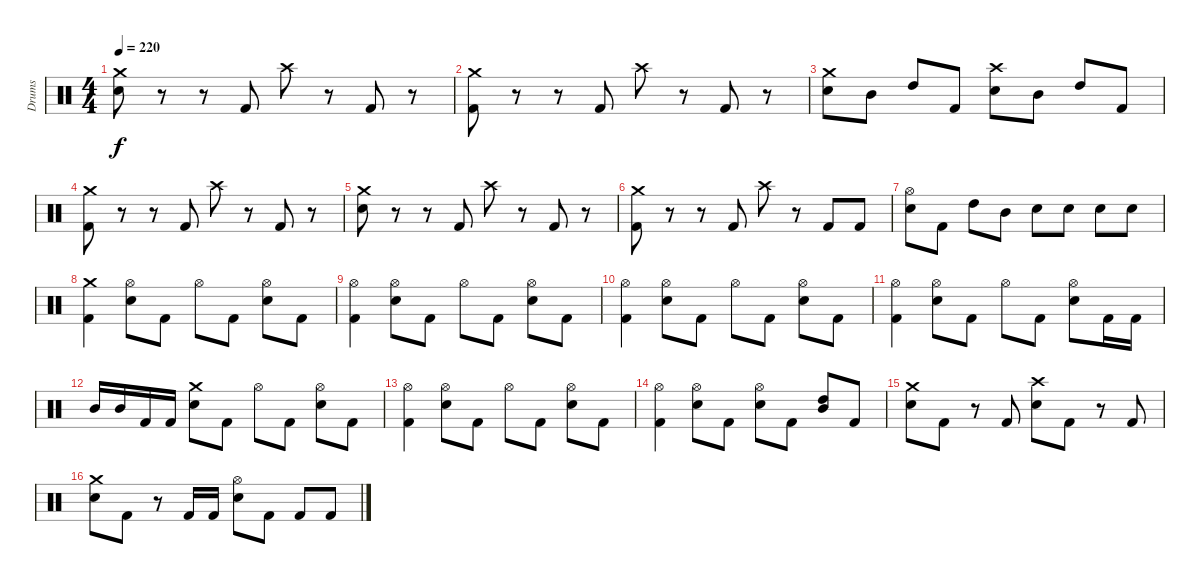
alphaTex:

\track ("Drums" "Drums") {instrument percussion}
\staff {score}
\articulation defaults
\ts (4 4)
\tempo 220
\clef neutral
\ks c
("Crash medium (hit)" "Electric Snare (hit)").8{dy f} r.8 r.8 "Kick (hit) 2".8 "Crash high (hit)".8 r.8 "Kick (hit) 2".8 r.8 |
("Crash medium (hit)" "Kick (hit) 2").8 r.8 r.8 "Kick (hit) 2".8 "Crash high (hit)".8 r.8 "Kick (hit) 2".8 r.8 |
("Crash medium (hit)" "Electric Snare (hit)").8 "Mid Tom (hit)".8 "High Tom (hit)".8 "Kick (hit) 2".8 ("Crash high (hit)" "Electric Snare (hit)").8 "Mid Tom (hit)".8 "High Tom (hit)".8 "Kick (hit) 2".8 |
("Crash medium (hit)" "Kick (hit) 2").8 r.8 r.8 "Kick (hit) 2".8 "Crash high (hit)".8 r.8 "Kick (hit) 2".8 r.8 |
("Crash medium (hit)" "Electric Snare (hit)").8 r.8 r.8 "Kick (hit) 2".8 "Crash high (hit)".8 r.8 "Kick (hit) 2".8 r.8 |
("Crash medium (hit)" "Kick (hit) 2").8 r.8 r.8 "Kick (hit) 2".8 "Crash high (hit)".8 r.8 "Kick (hit) 2".8 "Kick (hit) 2".8 |
("Hi-Hat (open)" "Electric Snare (hit)").8 "Kick (hit) 2".8 "High Tom (hit)".8 "Mid Tom (hit)".8 "Electric Snare (hit)".8 "Electric Snare (hit)".8 "Electric Snare (hit)".8 "Electric Snare (hit)".8 |
("Crash medium (hit)" "Kick (hit) 2").4 ("Hi-Hat (open)" "Electric Snare (hit)").8 "Kick (hit) 2".8 "Hi-Hat (open)".8 "Kick (hit) 2".8 ("Hi-Hat (open)" "Electric Snare (hit)").8 "Kick (hit) 2".8 |
("Hi-Hat (open)" "Kick (hit) 2").4 ("Hi-Hat (open)" "Electric Snare (hit)").8 "Kick (hit) 2".8 "Hi-Hat (open)".8 "Kick (hit) 2".8 ("Hi-Hat (open)" "Electric Snare (hit)").8 "Kick (hit) 2".8 |
("Hi-Hat (open)" "Kick (hit) 2").4 ("Hi-Hat (open)" "Electric Snare (hit)").8 "Kick (hit) 2".8 "Hi-Hat (open)".8 "Kick (hit) 2".8 ("Hi-Hat (open)" "Electric Snare (hit)").8 "Kick (hit) 2".8 |
("Hi-Hat (open)" "Kick (hit) 2").4 ("Hi-Hat (open)" "Electric Snare (hit)").8 "Kick (hit) 2".8 "Hi-Hat (open)".8 "Kick (hit) 2".8 ("Hi-Hat (open)" "Electric Snare (hit)").8 "Kick (hit) 2".16 "Kick (hit) 2".16 |
"Mid Tom (hit)".16 "Mid Tom (hit)".16 "Kick (hit) 2".16 "Kick (hit) 2".16 ("Crash medium (hit)" "Electric Snare (hit)").8 "Kick (hit) 2".8 "Hi-Hat (open)".8 "Kick (hit) 2".8 ("Hi-Hat (open)" "Electric Snare (hit)").8 "Kick (hit) 2".8 |
("Hi-Hat (open)" "Kick (hit) 2").4 ("Hi-Hat (open)" "Electric Snare (hit)").8 "Kick (hit) 2".8 "Hi-Hat (open)".8 "Kick (hit) 2".8 ("Hi-Hat (open)" "Electric Snare (hit)").8 "Kick (hit) 2".8 |
("Hi-Hat (open)" "Kick (hit) 2").4 ("Hi-Hat (open)" "Electric Snare (hit)").8 "Kick (hit) 2".8 ("Hi-Hat (open)" "Electric Snare (hit)").8 "Kick (hit) 2".8 ("Mid Tom (hit)" "High Tom (hit)").8 "Kick (hit) 2".8 |
("Crash medium (hit)" "Electric Snare (hit)").8 "Kick (hit) 2".8 r.8 "Kick (hit) 2".8 ("Crash high (hit)" "Electric Snare (hit)").8 "Kick (hit) 2".8 r.8 "Kick (hit) 2".8 |
("Crash medium (hit)" "Electric Snare (hit)").8 "Kick (hit) 2".8 r.8 "Kick (hit) 2".16 "Kick (hit) 2".16 ("Hi-Hat (open)" "Electric Snare (hit)").8 "Kick (hit) 2".8 "Kick (hit) 2".8 "Kick (hit) 2".8
